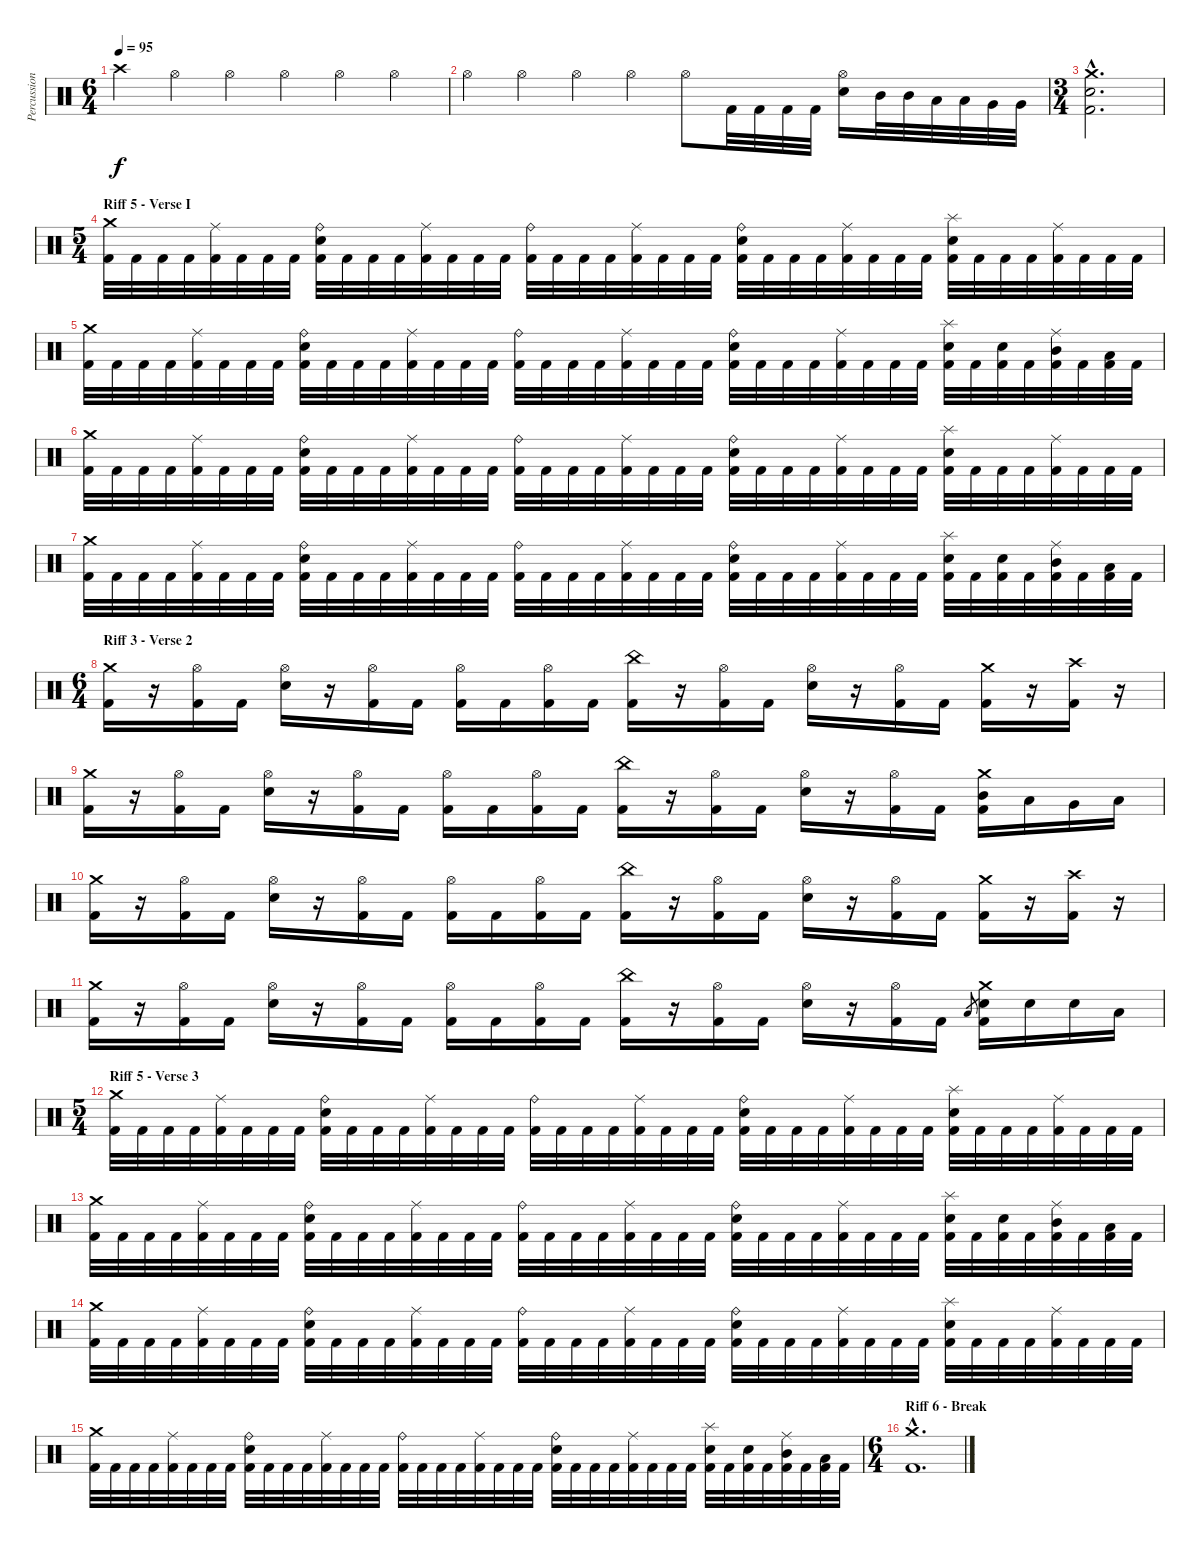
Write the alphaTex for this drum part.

\track ("Percussion" "Percussion") {instrument percussion}
\staff {score}
\articulation defaults
\ts (6 4)
\tempo 95
\clef neutral
\ks c "Crash high (hit)".4{dy f} "Hi-Hat (open)".4 "Hi-Hat (open)".4 "Hi-Hat (open)".4 "Hi-Hat (open)".4 "Hi-Hat (open)".4
|
"Hi-Hat (open)".4 "Hi-Hat (open)".4 "Hi-Hat (open)".4 "Hi-Hat (open)".4 "Hi-Hat (open)".8 "Kick (hit) 2".32 "Kick (hit) 2".32 "Kick (hit) 2".32 "Kick (hit) 2".32 ("Hi-Hat (open)" "Electric Snare (hit)").16 "Mid Tom (hit)".32 "Mid Tom (hit)".32 "Low Tom (hit)".32 "Low Tom (hit)".32 "Very Low Tom (hit)".32 "Very Low Tom (hit)".32 |
\ts (3 4)
("Crash medium (hit)"{hac} "Electric Snare (hit)"{hac} "Kick (hit) 2"{hac}).2{d} |
\ts (5 4)
\section ("" "Riff 5 - Verse I")
("Crash medium (hit)" "Kick (hit) 2").32 "Kick (hit) 2".32 "Kick (hit) 2".32 "Kick (hit) 2".32 ("Ride (middle)" "Kick (hit) 2").32 "Kick (hit) 2".32 "Kick (hit) 2".32 "Kick (hit) 2".32 ("Ride (bell)" "Electric Snare (hit)" "Kick (hit) 2").32 "Kick (hit) 2".32 "Kick (hit) 2".32 "Kick (hit) 2".32 ("Ride (middle)" "Kick (hit) 2").32 "Kick (hit) 2".32 "Kick (hit) 2".32 "Kick (hit) 2".32 ("Ride (bell)" "Kick (hit) 2").32 "Kick (hit) 2".32 "Kick (hit) 2".32 "Kick (hit) 2".32 ("Ride (middle)" "Kick (hit) 2").32 "Kick (hit) 2".32 "Kick (hit) 2".32 "Kick (hit) 2".32 ("Ride (bell)" "Electric Snare (hit)" "Kick (hit) 2").32 "Kick (hit) 2".32 "Kick (hit) 2".32 "Kick (hit) 2".32 ("Ride (middle)" "Kick (hit) 2").32 "Kick (hit) 2".32 "Kick (hit) 2".32 "Kick (hit) 2".32 ("Splash (hit)" "Electric Snare (hit)" "Kick (hit) 2").32 "Kick (hit) 2".32 "Kick (hit) 2".32 "Kick (hit) 2".32 ("Ride (middle)" "Kick (hit) 2").32 "Kick (hit) 2".32 "Kick (hit) 2".32 "Kick (hit) 2".32 |
("Crash medium (hit)" "Kick (hit) 2").32 "Kick (hit) 2".32 "Kick (hit) 2".32 "Kick (hit) 2".32 ("Ride (middle)" "Kick (hit) 2").32 "Kick (hit) 2".32 "Kick (hit) 2".32 "Kick (hit) 2".32 ("Ride (bell)" "Electric Snare (hit)" "Kick (hit) 2").32 "Kick (hit) 2".32 "Kick (hit) 2".32 "Kick (hit) 2".32 ("Ride (middle)" "Kick (hit) 2").32 "Kick (hit) 2".32 "Kick (hit) 2".32 "Kick (hit) 2".32 ("Ride (bell)" "Kick (hit) 2").32 "Kick (hit) 2".32 "Kick (hit) 2".32 "Kick (hit) 2".32 ("Ride (middle)" "Kick (hit) 2").32 "Kick (hit) 2".32 "Kick (hit) 2".32 "Kick (hit) 2".32 ("Ride (bell)" "Electric Snare (hit)" "Kick (hit) 2").32 "Kick (hit) 2".32 "Kick (hit) 2".32 "Kick (hit) 2".32 ("Ride (middle)" "Kick (hit) 2").32 "Kick (hit) 2".32 "Kick (hit) 2".32 "Kick (hit) 2".32 ("Splash (hit)" "Electric Snare (hit)" "Kick (hit) 2").32 "Kick (hit) 2".32 ("Electric Snare (hit)" "Kick (hit) 2").32 "Kick (hit) 2".32 ("Ride (middle)" "Mid Tom (hit)" "Kick (hit) 2").32 "Kick (hit) 2".32 ("Low Tom (hit)" "Kick (hit) 2").32 "Kick (hit) 2".32 |
("Crash medium (hit)" "Kick (hit) 2").32 "Kick (hit) 2".32 "Kick (hit) 2".32 "Kick (hit) 2".32 ("Ride (middle)" "Kick (hit) 2").32 "Kick (hit) 2".32 "Kick (hit) 2".32 "Kick (hit) 2".32 ("Ride (bell)" "Electric Snare (hit)" "Kick (hit) 2").32 "Kick (hit) 2".32 "Kick (hit) 2".32 "Kick (hit) 2".32 ("Ride (middle)" "Kick (hit) 2").32 "Kick (hit) 2".32 "Kick (hit) 2".32 "Kick (hit) 2".32 ("Ride (bell)" "Kick (hit) 2").32 "Kick (hit) 2".32 "Kick (hit) 2".32 "Kick (hit) 2".32 ("Ride (middle)" "Kick (hit) 2").32 "Kick (hit) 2".32 "Kick (hit) 2".32 "Kick (hit) 2".32 ("Ride (bell)" "Electric Snare (hit)" "Kick (hit) 2").32 "Kick (hit) 2".32 "Kick (hit) 2".32 "Kick (hit) 2".32 ("Ride (middle)" "Kick (hit) 2").32 "Kick (hit) 2".32 "Kick (hit) 2".32 "Kick (hit) 2".32 ("Splash (hit)" "Electric Snare (hit)" "Kick (hit) 2").32 "Kick (hit) 2".32 "Kick (hit) 2".32 "Kick (hit) 2".32 ("Ride (middle)" "Kick (hit) 2").32 "Kick (hit) 2".32 "Kick (hit) 2".32 "Kick (hit) 2".32 |
("Crash medium (hit)" "Kick (hit) 2").32 "Kick (hit) 2".32 "Kick (hit) 2".32 "Kick (hit) 2".32 ("Ride (middle)" "Kick (hit) 2").32 "Kick (hit) 2".32 "Kick (hit) 2".32 "Kick (hit) 2".32 ("Ride (bell)" "Electric Snare (hit)" "Kick (hit) 2").32 "Kick (hit) 2".32 "Kick (hit) 2".32 "Kick (hit) 2".32 ("Ride (middle)" "Kick (hit) 2").32 "Kick (hit) 2".32 "Kick (hit) 2".32 "Kick (hit) 2".32 ("Ride (bell)" "Kick (hit) 2").32 "Kick (hit) 2".32 "Kick (hit) 2".32 "Kick (hit) 2".32 ("Ride (middle)" "Kick (hit) 2").32 "Kick (hit) 2".32 "Kick (hit) 2".32 "Kick (hit) 2".32 ("Ride (bell)" "Electric Snare (hit)" "Kick (hit) 2").32 "Kick (hit) 2".32 "Kick (hit) 2".32 "Kick (hit) 2".32 ("Ride (middle)" "Kick (hit) 2").32 "Kick (hit) 2".32 "Kick (hit) 2".32 "Kick (hit) 2".32 ("Splash (hit)" "Electric Snare (hit)" "Kick (hit) 2").32 "Kick (hit) 2".32 ("Electric Snare (hit)" "Kick (hit) 2").32 "Kick (hit) 2".32 ("Ride (middle)" "Mid Tom (hit)" "Kick (hit) 2").32 "Kick (hit) 2".32 ("Low Tom (hit)" "Kick (hit) 2").32 "Kick (hit) 2".32 |
\ts (6 4)
\section ("" "Riff 3 - Verse 2")
("Crash medium (hit)" "Kick (hit) 2").16 r.16 ("Hi-Hat (open)" "Kick (hit) 2").16 "Kick (hit) 2".16 ("Hi-Hat (open)" "Electric Snare (hit)").16 r.16 ("Hi-Hat (open)" "Kick (hit) 2").16 "Kick (hit) 2".16 ("Hi-Hat (open)" "Kick (hit) 2").16 "Kick (hit) 2".16 ("Hi-Hat (open)" "Kick (hit) 2").16 "Kick (hit) 2".16 ("China (hit)" "Kick (hit) 2").16 r.16 ("Hi-Hat (open)" "Kick (hit) 2").16 "Kick (hit) 2".16 ("Hi-Hat (open)" "Electric Snare (hit)").16 r.16 ("Hi-Hat (open)" "Kick (hit) 2").16 "Kick (hit) 2".16 ("Crash medium (hit)" "Kick (hit) 2").16 r.16 ("Crash high (hit)" "Kick (hit) 2").16 r.16 |
("Crash medium (hit)" "Kick (hit) 2").16 r.16 ("Hi-Hat (open)" "Kick (hit) 2").16 "Kick (hit) 2".16 ("Hi-Hat (open)" "Electric Snare (hit)").16 r.16 ("Hi-Hat (open)" "Kick (hit) 2").16 "Kick (hit) 2".16 ("Hi-Hat (open)" "Kick (hit) 2").16 "Kick (hit) 2".16 ("Hi-Hat (open)" "Kick (hit) 2").16 "Kick (hit) 2".16 ("China (hit)" "Kick (hit) 2").16 r.16 ("Hi-Hat (open)" "Kick (hit) 2").16 "Kick (hit) 2".16 ("Hi-Hat (open)" "Electric Snare (hit)").16 r.16 ("Hi-Hat (open)" "Kick (hit) 2").16 "Kick (hit) 2".16 ("Crash medium (hit)" "Mid Tom (hit)" "Kick (hit) 2").16 "Low Tom (hit)".16 "Very Low Tom (hit)".16 "Low Floor Tom (hit)".16 |
("Crash medium (hit)" "Kick (hit) 2").16 r.16 ("Hi-Hat (open)" "Kick (hit) 2").16 "Kick (hit) 2".16 ("Hi-Hat (open)" "Electric Snare (hit)").16 r.16 ("Hi-Hat (open)" "Kick (hit) 2").16 "Kick (hit) 2".16 ("Hi-Hat (open)" "Kick (hit) 2").16 "Kick (hit) 2".16 ("Hi-Hat (open)" "Kick (hit) 2").16 "Kick (hit) 2".16 ("China (hit)" "Kick (hit) 2").16 r.16 ("Hi-Hat (open)" "Kick (hit) 2").16 "Kick (hit) 2".16 ("Hi-Hat (open)" "Electric Snare (hit)").16 r.16 ("Hi-Hat (open)" "Kick (hit) 2").16 "Kick (hit) 2".16 ("Crash medium (hit)" "Kick (hit) 2").16 r.16 ("Crash high (hit)" "Kick (hit) 2").16 r.16 |
("Crash medium (hit)" "Kick (hit) 2").16 r.16 ("Hi-Hat (open)" "Kick (hit) 2").16 "Kick (hit) 2".16 ("Hi-Hat (open)" "Electric Snare (hit)").16 r.16 ("Hi-Hat (open)" "Kick (hit) 2").16 "Kick (hit) 2".16 ("Hi-Hat (open)" "Kick (hit) 2").16 "Kick (hit) 2".16 ("Hi-Hat (open)" "Kick (hit) 2").16 "Kick (hit) 2".16 ("China (hit)" "Kick (hit) 2").16 r.16 ("Hi-Hat (open)" "Kick (hit) 2").16 "Kick (hit) 2".16 ("Hi-Hat (open)" "Electric Snare (hit)").16 r.16 ("Hi-Hat (open)" "Kick (hit) 2").16 "Kick (hit) 2".16 "Low Tom (hit)".8{gr} ("Crash medium (hit)" "Electric Snare (hit)" "Kick (hit) 2").16 "Electric Snare (hit)".16 "Electric Snare (hit)".16 "Low Floor Tom (hit)".16 |
\ts (5 4)
\section ("" "Riff 5 - Verse 3")
("Crash medium (hit)" "Kick (hit) 2").32 "Kick (hit) 2".32 "Kick (hit) 2".32 "Kick (hit) 2".32 ("Ride (middle)" "Kick (hit) 2").32 "Kick (hit) 2".32 "Kick (hit) 2".32 "Kick (hit) 2".32 ("Ride (bell)" "Electric Snare (hit)" "Kick (hit) 2").32 "Kick (hit) 2".32 "Kick (hit) 2".32 "Kick (hit) 2".32 ("Ride (middle)" "Kick (hit) 2").32 "Kick (hit) 2".32 "Kick (hit) 2".32 "Kick (hit) 2".32 ("Ride (bell)" "Kick (hit) 2").32 "Kick (hit) 2".32 "Kick (hit) 2".32 "Kick (hit) 2".32 ("Ride (middle)" "Kick (hit) 2").32 "Kick (hit) 2".32 "Kick (hit) 2".32 "Kick (hit) 2".32 ("Ride (bell)" "Electric Snare (hit)" "Kick (hit) 2").32 "Kick (hit) 2".32 "Kick (hit) 2".32 "Kick (hit) 2".32 ("Ride (middle)" "Kick (hit) 2").32 "Kick (hit) 2".32 "Kick (hit) 2".32 "Kick (hit) 2".32 ("Splash (hit)" "Electric Snare (hit)" "Kick (hit) 2").32 "Kick (hit) 2".32 "Kick (hit) 2".32 "Kick (hit) 2".32 ("Ride (middle)" "Kick (hit) 2").32 "Kick (hit) 2".32 "Kick (hit) 2".32 "Kick (hit) 2".32 |
("Crash medium (hit)" "Kick (hit) 2").32 "Kick (hit) 2".32 "Kick (hit) 2".32 "Kick (hit) 2".32 ("Ride (middle)" "Kick (hit) 2").32 "Kick (hit) 2".32 "Kick (hit) 2".32 "Kick (hit) 2".32 ("Ride (bell)" "Electric Snare (hit)" "Kick (hit) 2").32 "Kick (hit) 2".32 "Kick (hit) 2".32 "Kick (hit) 2".32 ("Ride (middle)" "Kick (hit) 2").32 "Kick (hit) 2".32 "Kick (hit) 2".32 "Kick (hit) 2".32 ("Ride (bell)" "Kick (hit) 2").32 "Kick (hit) 2".32 "Kick (hit) 2".32 "Kick (hit) 2".32 ("Ride (middle)" "Kick (hit) 2").32 "Kick (hit) 2".32 "Kick (hit) 2".32 "Kick (hit) 2".32 ("Ride (bell)" "Electric Snare (hit)" "Kick (hit) 2").32 "Kick (hit) 2".32 "Kick (hit) 2".32 "Kick (hit) 2".32 ("Ride (middle)" "Kick (hit) 2").32 "Kick (hit) 2".32 "Kick (hit) 2".32 "Kick (hit) 2".32 ("Splash (hit)" "Electric Snare (hit)" "Kick (hit) 2").32 "Kick (hit) 2".32 ("Electric Snare (hit)" "Kick (hit) 2").32 "Kick (hit) 2".32 ("Ride (middle)" "Mid Tom (hit)" "Kick (hit) 2").32 "Kick (hit) 2".32 ("Low Tom (hit)" "Kick (hit) 2").32 "Kick (hit) 2".32 |
("Crash medium (hit)" "Kick (hit) 2").32 "Kick (hit) 2".32 "Kick (hit) 2".32 "Kick (hit) 2".32 ("Ride (middle)" "Kick (hit) 2").32 "Kick (hit) 2".32 "Kick (hit) 2".32 "Kick (hit) 2".32 ("Ride (bell)" "Electric Snare (hit)" "Kick (hit) 2").32 "Kick (hit) 2".32 "Kick (hit) 2".32 "Kick (hit) 2".32 ("Ride (middle)" "Kick (hit) 2").32 "Kick (hit) 2".32 "Kick (hit) 2".32 "Kick (hit) 2".32 ("Ride (bell)" "Kick (hit) 2").32 "Kick (hit) 2".32 "Kick (hit) 2".32 "Kick (hit) 2".32 ("Ride (middle)" "Kick (hit) 2").32 "Kick (hit) 2".32 "Kick (hit) 2".32 "Kick (hit) 2".32 ("Ride (bell)" "Electric Snare (hit)" "Kick (hit) 2").32 "Kick (hit) 2".32 "Kick (hit) 2".32 "Kick (hit) 2".32 ("Ride (middle)" "Kick (hit) 2").32 "Kick (hit) 2".32 "Kick (hit) 2".32 "Kick (hit) 2".32 ("Splash (hit)" "Electric Snare (hit)" "Kick (hit) 2").32 "Kick (hit) 2".32 "Kick (hit) 2".32 "Kick (hit) 2".32 ("Ride (middle)" "Kick (hit) 2").32 "Kick (hit) 2".32 "Kick (hit) 2".32 "Kick (hit) 2".32 |
("Crash medium (hit)" "Kick (hit) 2").32 "Kick (hit) 2".32 "Kick (hit) 2".32 "Kick (hit) 2".32 ("Ride (middle)" "Kick (hit) 2").32 "Kick (hit) 2".32 "Kick (hit) 2".32 "Kick (hit) 2".32 ("Ride (bell)" "Electric Snare (hit)" "Kick (hit) 2").32 "Kick (hit) 2".32 "Kick (hit) 2".32 "Kick (hit) 2".32 ("Ride (middle)" "Kick (hit) 2").32 "Kick (hit) 2".32 "Kick (hit) 2".32 "Kick (hit) 2".32 ("Ride (bell)" "Kick (hit) 2").32 "Kick (hit) 2".32 "Kick (hit) 2".32 "Kick (hit) 2".32 ("Ride (middle)" "Kick (hit) 2").32 "Kick (hit) 2".32 "Kick (hit) 2".32 "Kick (hit) 2".32 ("Ride (bell)" "Electric Snare (hit)" "Kick (hit) 2").32 "Kick (hit) 2".32 "Kick (hit) 2".32 "Kick (hit) 2".32 ("Ride (middle)" "Kick (hit) 2").32 "Kick (hit) 2".32 "Kick (hit) 2".32 "Kick (hit) 2".32 ("Splash (hit)" "Electric Snare (hit)" "Kick (hit) 2").32 "Kick (hit) 2".32 ("Electric Snare (hit)" "Kick (hit) 2").32 "Kick (hit) 2".32 ("Ride (middle)" "Mid Tom (hit)" "Kick (hit) 2").32 "Kick (hit) 2".32 ("Low Tom (hit)" "Kick (hit) 2").32 "Kick (hit) 2".32 |
\ts (6 4)
\section ("" "Riff 6 - Break")
("Crash medium (hit)"{hac} "Kick (hit) 2"{hac}).1{d}
